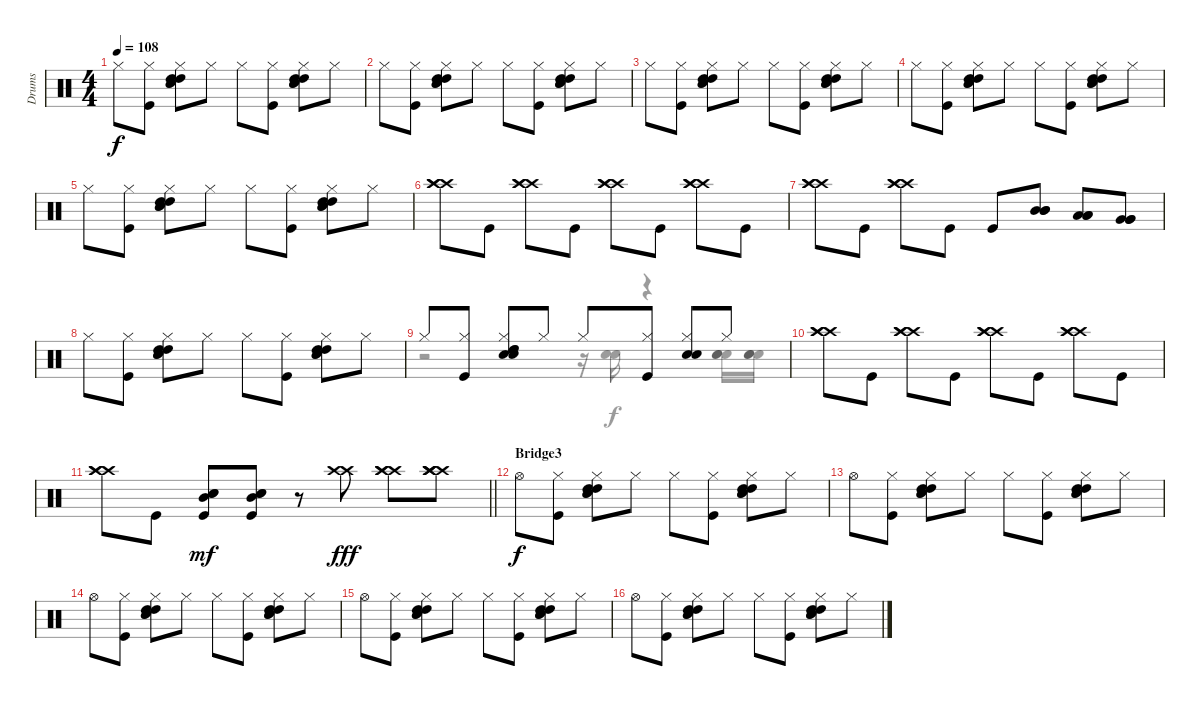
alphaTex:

\track ("Drums" "Drums") {instrument percussion}
\staff {score}
\articulation defaults
\voice
\ts (4 4)
\tempo 108
\clef neutral
\ks c "Hi-Hat (closed)".8{dy f}
("Kick (hit)" "Hi-Hat (closed)").8 ("Snare (hit) 2" "Snare (hit) 2" "High Tom (hit)" "High Tom (hit)" "Hi-Hat (closed)").8 "Hi-Hat (closed)".8 "Hi-Hat (closed)".8 ("Kick (hit)" "Hi-Hat (closed)").8 ("Snare (hit) 2" "Snare (hit) 2" "High Tom (hit)" "High Tom (hit)" "Hi-Hat (closed)").8 "Hi-Hat (closed)".8 |
"Hi-Hat (closed)".8 ("Kick (hit)" "Hi-Hat (closed)").8 ("Snare (hit) 2" "Snare (hit) 2" "High Tom (hit)" "High Tom (hit)" "Hi-Hat (closed)").8 "Hi-Hat (closed)".8 "Hi-Hat (closed)".8 ("Kick (hit)" "Hi-Hat (closed)").8 ("Snare (hit) 2" "Snare (hit) 2" "High Tom (hit)" "High Tom (hit)" "Hi-Hat (closed)").8 "Hi-Hat (closed)".8 |
"Hi-Hat (closed)".8 ("Kick (hit)" "Hi-Hat (closed)").8 ("Snare (hit) 2" "Snare (hit) 2" "High Tom (hit)" "High Tom (hit)" "Hi-Hat (closed)").8 "Hi-Hat (closed)".8 "Hi-Hat (closed)".8 ("Kick (hit)" "Hi-Hat (closed)").8 ("Snare (hit) 2" "Snare (hit) 2" "High Tom (hit)" "High Tom (hit)" "Hi-Hat (closed)").8 "Hi-Hat (closed)".8 |
"Hi-Hat (closed)".8 ("Kick (hit)" "Hi-Hat (closed)").8 ("Snare (hit) 2" "Snare (hit) 2" "High Tom (hit)" "High Tom (hit)" "Hi-Hat (closed)").8 "Hi-Hat (closed)".8 "Hi-Hat (closed)".8 ("Kick (hit)" "Hi-Hat (closed)").8 ("Snare (hit) 2" "Snare (hit) 2" "High Tom (hit)" "High Tom (hit)" "Hi-Hat (closed)").8 "Hi-Hat (closed)".8 |
"Hi-Hat (closed)".8 ("Kick (hit)" "Hi-Hat (closed)").8 ("Snare (hit) 2" "Snare (hit) 2" "High Tom (hit)" "High Tom (hit)" "Hi-Hat (closed)").8 "Hi-Hat (closed)".8 "Hi-Hat (closed)".8 ("Kick (hit)" "Hi-Hat (closed)").8 ("Snare (hit) 2" "Snare (hit) 2" "High Tom (hit)" "High Tom (hit)" "Hi-Hat (closed)").8 "Hi-Hat (closed)".8 |
("Crash high (hit)" "Crash high (hit)" "Crash high (hit)").8 "Kick (hit)".8 ("Crash high (hit)" "Crash high (hit)" "Crash high (hit)").8 "Kick (hit)".8 ("Crash high (hit)" "Crash high (hit)" "Crash high (hit)").8 "Kick (hit)".8 ("Crash high (hit)" "Crash high (hit)" "Crash high (hit)").8 "Kick (hit)".8 |
("Crash high (hit)" "Crash high (hit)" "Crash high (hit)").8 "Kick (hit)".8 ("Crash high (hit)" "Crash high (hit)" "Crash high (hit)").8 "Kick (hit)".8 "Kick (hit)".8 ("Mid Tom (hit)" "Mid Tom (hit)" "Mid Tom (hit)").8 ("Low Tom (hit)" "Low Tom (hit)" "Low Tom (hit)").8 ("Very Low Tom (hit)" "Very Low Tom (hit)" "Very Low Tom (hit)").8 |
"Hi-Hat (closed)".8 ("Kick (hit)" "Hi-Hat (closed)").8 ("Snare (hit) 2" "Snare (hit) 2" "High Tom (hit)" "High Tom (hit)" "Hi-Hat (closed)").8 "Hi-Hat (closed)".8 "Hi-Hat (closed)".8 ("Kick (hit)" "Hi-Hat (closed)").8 ("Snare (hit) 2" "Snare (hit) 2" "High Tom (hit)" "High Tom (hit)" "Hi-Hat (closed)").8 "Hi-Hat (closed)".8 |
"Hi-Hat (closed)".8 ("Kick (hit)" "Hi-Hat (closed)").8 ("Snare (hit) 2" "Snare (hit) 2" "High Tom (hit)" "High Tom (hit)" "Hi-Hat (closed)").8 "Hi-Hat (closed)".8 "Hi-Hat (closed)".8 ("Kick (hit)" "Hi-Hat (closed)").8 ("Snare (hit) 2" "Snare (hit) 2" "Hi-Hat (closed)").8 "Hi-Hat (closed)".8 |
("Crash high (hit)" "Crash high (hit)" "Crash high (hit)").8 "Kick (hit)".8 ("Crash high (hit)" "Crash high (hit)" "Crash high (hit)").8 "Kick (hit)".8 ("Crash high (hit)" "Crash high (hit)" "Crash high (hit)").8 "Kick (hit)".8 ("Crash high (hit)" "Crash high (hit)" "Crash high (hit)").8 "Kick (hit)".8 |
\barLineRight lightlight
("Crash high (hit)" "Crash high (hit)" "Crash high (hit)").8 "Kick (hit)".8 ("Snare (hit) 2" "Snare (hit) 2" "Mid Tom (hit)" "Kick (hit)").8{dy mf} ("Snare (hit) 2" "Snare (hit) 2" "Mid Tom (hit)" "Kick (hit)").8 r.8{volume 0} ("Crash high (hit)" "Crash high (hit)").8{dy fff volume 6} ("Crash high (hit)" "Crash high (hit)" "Crash high (hit)").8 ("Crash high (hit)" "Crash high (hit)" "Crash high (hit)" "Crash high (hit)").8 |
\section ("" "Bridge3")
"Hi-Hat (open)".8{dy f} ("Kick (hit)" "Hi-Hat (closed)").8 ("Snare (hit) 2" "Snare (hit) 2" "High Tom (hit)" "High Tom (hit)" "Hi-Hat (closed)").8 "Hi-Hat (closed)".8 "Hi-Hat (closed)".8 ("Kick (hit)" "Hi-Hat (closed)").8 ("Snare (hit) 2" "Snare (hit) 2" "High Tom (hit)" "High Tom (hit)" "Hi-Hat (closed)").8 "Hi-Hat (closed)".8 |
"Hi-Hat (open)".8 ("Kick (hit)" "Hi-Hat (closed)").8 ("Snare (hit) 2" "Snare (hit) 2" "High Tom (hit)" "High Tom (hit)" "Hi-Hat (closed)").8 "Hi-Hat (closed)".8 "Hi-Hat (closed)".8 ("Kick (hit)" "Hi-Hat (closed)").8 ("Snare (hit) 2" "Snare (hit) 2" "High Tom (hit)" "High Tom (hit)" "Hi-Hat (closed)").8 "Hi-Hat (closed)".8 |
"Hi-Hat (open)".8 ("Kick (hit)" "Hi-Hat (closed)").8 ("Snare (hit) 2" "Snare (hit) 2" "High Tom (hit)" "High Tom (hit)" "Hi-Hat (closed)").8 "Hi-Hat (closed)".8 "Hi-Hat (closed)".8 ("Kick (hit)" "Hi-Hat (closed)").8 ("Snare (hit) 2" "Snare (hit) 2" "High Tom (hit)" "High Tom (hit)" "Hi-Hat (closed)").8 "Hi-Hat (closed)".8 |
"Hi-Hat (open)".8 ("Kick (hit)" "Hi-Hat (closed)").8 ("Snare (hit) 2" "Snare (hit) 2" "High Tom (hit)" "High Tom (hit)" "Hi-Hat (closed)").8 "Hi-Hat (closed)".8 "Hi-Hat (closed)".8 ("Kick (hit)" "Hi-Hat (closed)").8 ("Snare (hit) 2" "Snare (hit) 2" "High Tom (hit)" "High Tom (hit)" "Hi-Hat (closed)").8 "Hi-Hat (closed)".8 |
"Hi-Hat (open)".8 ("Kick (hit)" "Hi-Hat (closed)").8 ("Snare (hit) 2" "Snare (hit) 2" "High Tom (hit)" "High Tom (hit)" "Hi-Hat (closed)").8 "Hi-Hat (closed)".8 "Hi-Hat (closed)".8 ("Kick (hit)" "Hi-Hat (closed)").8 ("Snare (hit) 2" "Snare (hit) 2" "High Tom (hit)" "High Tom (hit)" "Hi-Hat (closed)").8 "Hi-Hat (closed)".8
\voice
\clef neutral
\ottava regular
\simile none
\ks c
|
|
|
|
|
|
|
|
r.2 r.16 ("Snare (hit) 2" "Snare (hit) 2").16 r.4 ("Snare (hit) 2" "Snare (hit) 2" "Snare (hit) 2").16 ("Snare (hit) 2" "Snare (hit) 2" "Snare (hit) 2").16 |
|
\barLineRight lightlight
|
|
|
|
|
